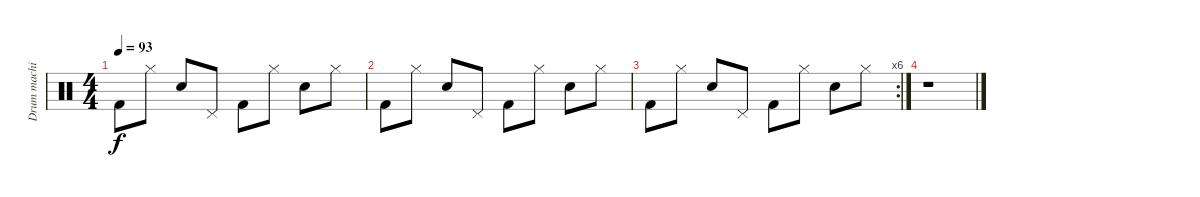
\track ("Drum machine" "Drum machi") {instrument percussion}
\staff {score}
\articulation defaults
\ts (4 4)
\tempo 93
\clef neutral
\ks c "Kick (hit) 2".8{dy f} "Hi-Hat (closed)".8 "Snare (hit) 2".8 "Pedal Hi-Hat (hit)".8 "Kick (hit) 2".8 "Hi-Hat (closed)".8 "Snare (hit) 2".8 "Hi-Hat (closed)".8
|
"Kick (hit) 2".8 "Hi-Hat (closed)".8 "Snare (hit) 2".8 "Pedal Hi-Hat (hit)".8 "Kick (hit) 2".8 "Hi-Hat (closed)".8 "Snare (hit) 2".8 "Hi-Hat (closed)".8 |
\rc 6 "Kick (hit) 2".8 "Hi-Hat (closed)".8 "Snare (hit) 2".8 "Pedal Hi-Hat (hit)".8 "Kick (hit) 2".8 "Hi-Hat (closed)".8 "Snare (hit) 2".8 "Hi-Hat (closed)".8
|
r.1
